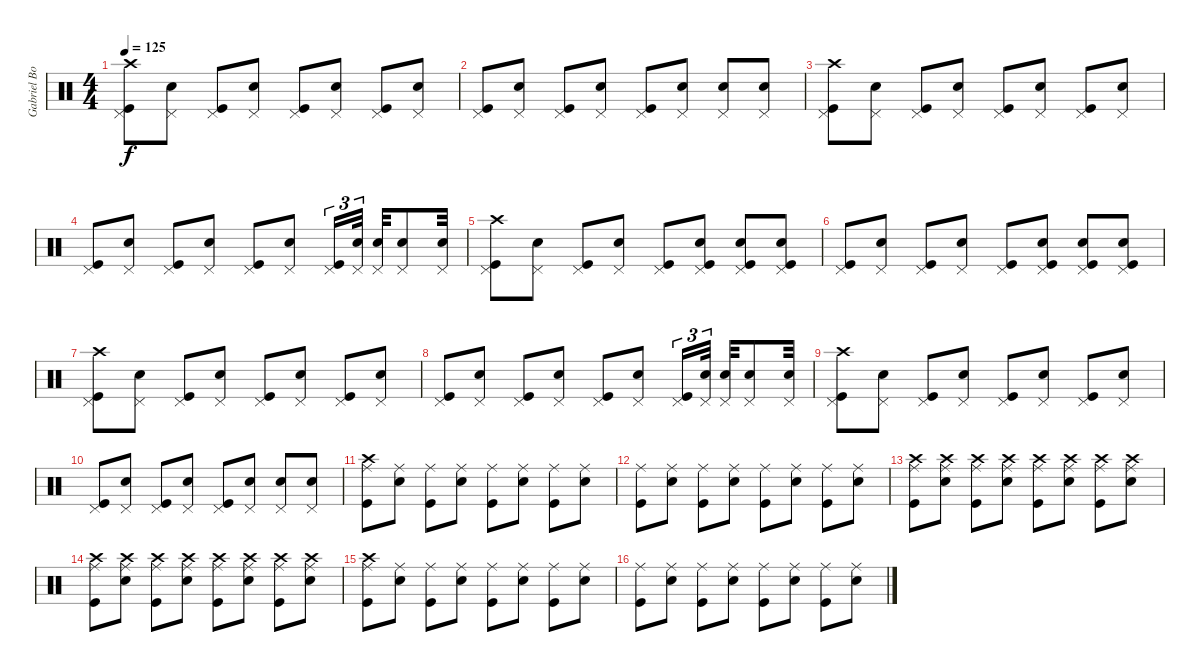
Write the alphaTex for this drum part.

\track ("Gabriel Boizinho" "Gabriel Bo") {instrument percussion}
\staff {score}
\articulation defaults
\ts (4 4)
\tempo 125
\clef neutral
\ks c
("Crash high (hit)" "Pedal Hi-Hat (hit)" "Kick (hit)").8{dy f} ("Pedal Hi-Hat (hit)" "Electric Snare (hit)").8 ("Pedal Hi-Hat (hit)" "Kick (hit)").8 ("Pedal Hi-Hat (hit)" "Electric Snare (hit)").8 ("Pedal Hi-Hat (hit)" "Kick (hit)").8 ("Pedal Hi-Hat (hit)" "Electric Snare (hit)").8 ("Pedal Hi-Hat (hit)" "Kick (hit)").8 ("Pedal Hi-Hat (hit)" "Electric Snare (hit)").8 |
("Pedal Hi-Hat (hit)" "Kick (hit)").8 ("Pedal Hi-Hat (hit)" "Electric Snare (hit)").8 ("Pedal Hi-Hat (hit)" "Kick (hit)").8 ("Pedal Hi-Hat (hit)" "Electric Snare (hit)").8 ("Pedal Hi-Hat (hit)" "Kick (hit)").8 ("Pedal Hi-Hat (hit)" "Electric Snare (hit)").8 ("Pedal Hi-Hat (hit)" "Electric Snare (hit)").8 ("Pedal Hi-Hat (hit)" "Electric Snare (hit)").8 |
("Crash high (hit)" "Pedal Hi-Hat (hit)" "Kick (hit)").8 ("Pedal Hi-Hat (hit)" "Electric Snare (hit)").8 ("Pedal Hi-Hat (hit)" "Kick (hit)").8 ("Pedal Hi-Hat (hit)" "Electric Snare (hit)").8 ("Pedal Hi-Hat (hit)" "Kick (hit)").8 ("Pedal Hi-Hat (hit)" "Electric Snare (hit)").8 ("Pedal Hi-Hat (hit)" "Kick (hit)").8 ("Pedal Hi-Hat (hit)" "Electric Snare (hit)").8 |
("Pedal Hi-Hat (hit)" "Kick (hit)").8 ("Pedal Hi-Hat (hit)" "Electric Snare (hit)").8 ("Pedal Hi-Hat (hit)" "Kick (hit)").8 ("Pedal Hi-Hat (hit)" "Electric Snare (hit)").8 ("Pedal Hi-Hat (hit)" "Kick (hit)").8 ("Pedal Hi-Hat (hit)" "Electric Snare (hit)").8 ("Pedal Hi-Hat (hit)" "Kick (hit)").16{tu (3 2)} ("Pedal Hi-Hat (hit)" "Electric Snare (hit)").32{tu (3 2)} ("Pedal Hi-Hat (hit)" "Electric Snare (hit)").32 ("Pedal Hi-Hat (hit)" "Electric Snare (hit)").8 ("Pedal Hi-Hat (hit)" "Electric Snare (hit)").32 |
("Crash high (hit)" "Pedal Hi-Hat (hit)" "Kick (hit)").8 ("Pedal Hi-Hat (hit)" "Electric Snare (hit)").8 ("Pedal Hi-Hat (hit)" "Kick (hit)").8 ("Pedal Hi-Hat (hit)" "Electric Snare (hit)").8 ("Pedal Hi-Hat (hit)" "Kick (hit)").8 ("Kick (hit)" "Pedal Hi-Hat (hit)" "Electric Snare (hit)").8 ("Kick (hit)" "Pedal Hi-Hat (hit)" "Electric Snare (hit)").8 ("Kick (hit)" "Pedal Hi-Hat (hit)" "Electric Snare (hit)").8 |
("Pedal Hi-Hat (hit)" "Kick (hit)").8 ("Pedal Hi-Hat (hit)" "Electric Snare (hit)").8 ("Pedal Hi-Hat (hit)" "Kick (hit)").8 ("Pedal Hi-Hat (hit)" "Electric Snare (hit)").8 ("Pedal Hi-Hat (hit)" "Kick (hit)").8 ("Kick (hit)" "Pedal Hi-Hat (hit)" "Electric Snare (hit)").8 ("Kick (hit)" "Pedal Hi-Hat (hit)" "Electric Snare (hit)").8 ("Kick (hit)" "Pedal Hi-Hat (hit)" "Electric Snare (hit)").8 |
("Crash high (hit)" "Pedal Hi-Hat (hit)" "Kick (hit)").8 ("Pedal Hi-Hat (hit)" "Electric Snare (hit)").8 ("Pedal Hi-Hat (hit)" "Kick (hit)").8 ("Pedal Hi-Hat (hit)" "Electric Snare (hit)").8 ("Pedal Hi-Hat (hit)" "Kick (hit)").8 ("Pedal Hi-Hat (hit)" "Electric Snare (hit)").8 ("Pedal Hi-Hat (hit)" "Kick (hit)").8 ("Pedal Hi-Hat (hit)" "Electric Snare (hit)").8 |
("Pedal Hi-Hat (hit)" "Kick (hit)").8 ("Pedal Hi-Hat (hit)" "Electric Snare (hit)").8 ("Pedal Hi-Hat (hit)" "Kick (hit)").8 ("Pedal Hi-Hat (hit)" "Electric Snare (hit)").8 ("Pedal Hi-Hat (hit)" "Kick (hit)").8 ("Pedal Hi-Hat (hit)" "Electric Snare (hit)").8 ("Pedal Hi-Hat (hit)" "Kick (hit)").16{tu (3 2)} ("Pedal Hi-Hat (hit)" "Electric Snare (hit)").32{tu (3 2)} ("Pedal Hi-Hat (hit)" "Electric Snare (hit)").32 ("Pedal Hi-Hat (hit)" "Electric Snare (hit)").8 ("Pedal Hi-Hat (hit)" "Electric Snare (hit)").32 |
("Crash high (hit)" "Pedal Hi-Hat (hit)" "Kick (hit)").8 ("Pedal Hi-Hat (hit)" "Electric Snare (hit)").8 ("Pedal Hi-Hat (hit)" "Kick (hit)").8 ("Pedal Hi-Hat (hit)" "Electric Snare (hit)").8 ("Pedal Hi-Hat (hit)" "Kick (hit)").8 ("Pedal Hi-Hat (hit)" "Electric Snare (hit)").8 ("Pedal Hi-Hat (hit)" "Kick (hit)").8 ("Pedal Hi-Hat (hit)" "Electric Snare (hit)").8 |
("Pedal Hi-Hat (hit)" "Kick (hit)").8 ("Pedal Hi-Hat (hit)" "Electric Snare (hit)").8 ("Pedal Hi-Hat (hit)" "Kick (hit)").8 ("Pedal Hi-Hat (hit)" "Electric Snare (hit)").8 ("Pedal Hi-Hat (hit)" "Kick (hit)").8 ("Pedal Hi-Hat (hit)" "Electric Snare (hit)").8 ("Pedal Hi-Hat (hit)" "Electric Snare (hit)").8 ("Pedal Hi-Hat (hit)" "Electric Snare (hit)").8 |
("Crash high (hit)" "Ride (middle)" "Kick (hit)").8 ("Ride (middle)" "Electric Snare (hit)").8 ("Ride (middle)" "Kick (hit)").8 ("Ride (middle)" "Electric Snare (hit)").8 ("Ride (middle)" "Kick (hit)").8 ("Ride (middle)" "Electric Snare (hit)").8 ("Ride (middle)" "Kick (hit)").8 ("Ride (middle)" "Electric Snare (hit)").8 |
("Ride (middle)" "Kick (hit)").8 ("Ride (middle)" "Electric Snare (hit)").8 ("Ride (middle)" "Kick (hit)").8 ("Ride (middle)" "Electric Snare (hit)").8 ("Ride (middle)" "Kick (hit)").8 ("Ride (middle)" "Electric Snare (hit)").8 ("Ride (middle)" "Kick (hit)").8 ("Ride (middle)" "Electric Snare (hit)").8 |
("Crash high (hit)" "Ride (middle)" "Kick (hit)").8 ("Crash high (hit)" "Ride (middle)" "Electric Snare (hit)").8 ("Crash high (hit)" "Ride (middle)" "Kick (hit)").8 ("Crash high (hit)" "Ride (middle)" "Electric Snare (hit)").8 ("Crash high (hit)" "Ride (middle)" "Kick (hit)").8 ("Crash high (hit)" "Ride (middle)" "Electric Snare (hit)").8 ("Crash high (hit)" "Ride (middle)" "Kick (hit)").8 ("Crash high (hit)" "Ride (middle)" "Electric Snare (hit)").8 |
("Crash high (hit)" "Ride (middle)" "Kick (hit)").8 ("Crash high (hit)" "Ride (middle)" "Electric Snare (hit)").8 ("Crash high (hit)" "Ride (middle)" "Kick (hit)").8 ("Crash high (hit)" "Ride (middle)" "Electric Snare (hit)").8 ("Crash high (hit)" "Ride (middle)" "Kick (hit)").8 ("Crash high (hit)" "Ride (middle)" "Electric Snare (hit)").8 ("Crash high (hit)" "Ride (middle)" "Kick (hit)").8 ("Crash high (hit)" "Ride (middle)" "Electric Snare (hit)").8 |
("Crash high (hit)" "Ride (middle)" "Kick (hit)").8 ("Ride (middle)" "Electric Snare (hit)").8 ("Ride (middle)" "Kick (hit)").8 ("Ride (middle)" "Electric Snare (hit)").8 ("Ride (middle)" "Kick (hit)").8 ("Ride (middle)" "Electric Snare (hit)").8 ("Ride (middle)" "Kick (hit)").8 ("Ride (middle)" "Electric Snare (hit)").8 |
("Ride (middle)" "Kick (hit)").8 ("Ride (middle)" "Electric Snare (hit)").8 ("Ride (middle)" "Kick (hit)").8 ("Ride (middle)" "Electric Snare (hit)").8 ("Ride (middle)" "Kick (hit)").8 ("Ride (middle)" "Electric Snare (hit)").8 ("Ride (middle)" "Kick (hit)").8 ("Ride (middle)" "Electric Snare (hit)").8
